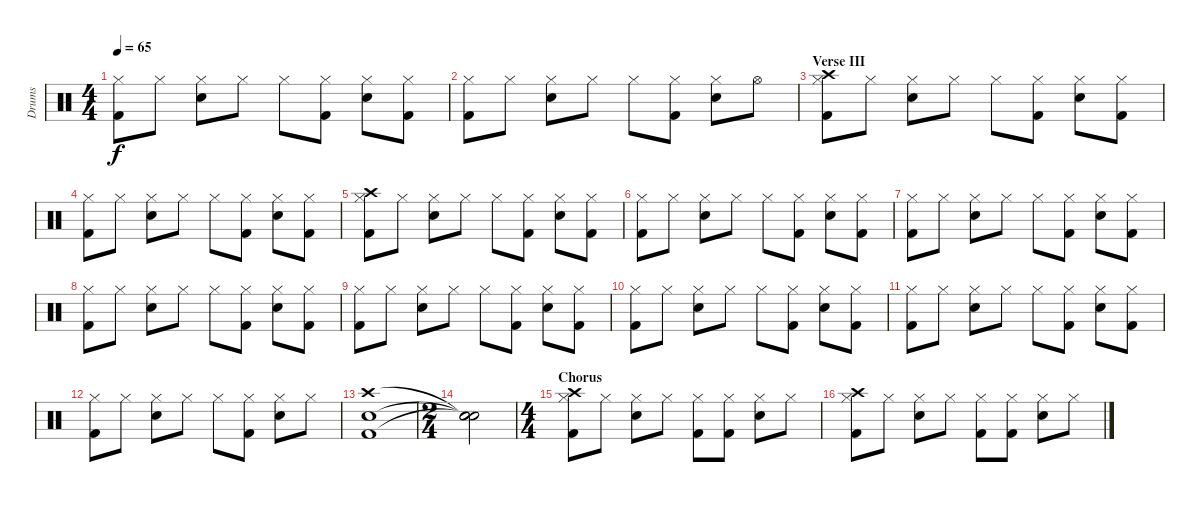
\track ("Drums" "Drums") {instrument percussion}
\staff {score}
\articulation defaults
\ts (4 4)
\tempo 65
\clef neutral
\ks c
("Hi-Hat (closed)" "Kick (hit) 2").8{dy f} "Hi-Hat (closed)".8 ("Hi-Hat (closed)" "Electric Snare (hit)").8 "Hi-Hat (closed)".8 "Hi-Hat (closed)".8 ("Hi-Hat (closed)" "Kick (hit) 2").8 ("Hi-Hat (closed)" "Electric Snare (hit)").8 ("Hi-Hat (closed)" "Kick (hit) 2").8 |
("Hi-Hat (closed)" "Kick (hit) 2").8 "Hi-Hat (closed)".8 ("Hi-Hat (closed)" "Electric Snare (hit)").8 "Hi-Hat (closed)".8 "Hi-Hat (closed)".8 ("Hi-Hat (closed)" "Kick (hit) 2").8 ("Hi-Hat (closed)" "Electric Snare (hit)").8 "Hi-Hat (open)".8 |
\section ("" "Verse III")
("Hi-Hat (closed)" "Kick (hit) 2" "Crash high (hit)").8 "Hi-Hat (closed)".8 ("Hi-Hat (closed)" "Electric Snare (hit)").8 "Hi-Hat (closed)".8 "Hi-Hat (closed)".8 ("Hi-Hat (closed)" "Kick (hit) 2").8 ("Hi-Hat (closed)" "Electric Snare (hit)").8 ("Hi-Hat (closed)" "Kick (hit) 2").8 |
("Hi-Hat (closed)" "Kick (hit) 2").8 "Hi-Hat (closed)".8 ("Hi-Hat (closed)" "Electric Snare (hit)").8 "Hi-Hat (closed)".8 "Hi-Hat (closed)".8 ("Hi-Hat (closed)" "Kick (hit) 2").8 ("Hi-Hat (closed)" "Electric Snare (hit)").8 ("Hi-Hat (closed)" "Kick (hit) 2").8 |
("Hi-Hat (closed)" "Kick (hit) 2" "Crash high (hit)").8 "Hi-Hat (closed)".8 ("Hi-Hat (closed)" "Electric Snare (hit)").8 "Hi-Hat (closed)".8 "Hi-Hat (closed)".8 ("Hi-Hat (closed)" "Kick (hit) 2").8 ("Hi-Hat (closed)" "Electric Snare (hit)").8 ("Hi-Hat (closed)" "Kick (hit) 2").8 |
("Hi-Hat (closed)" "Kick (hit) 2").8 "Hi-Hat (closed)".8 ("Hi-Hat (closed)" "Electric Snare (hit)").8 "Hi-Hat (closed)".8 "Hi-Hat (closed)".8 ("Hi-Hat (closed)" "Kick (hit) 2").8 ("Hi-Hat (closed)" "Electric Snare (hit)").8 ("Hi-Hat (closed)" "Kick (hit) 2").8 |
("Hi-Hat (closed)" "Kick (hit) 2").8 "Hi-Hat (closed)".8 ("Hi-Hat (closed)" "Electric Snare (hit)").8 "Hi-Hat (closed)".8 "Hi-Hat (closed)".8 ("Hi-Hat (closed)" "Kick (hit) 2").8 ("Hi-Hat (closed)" "Electric Snare (hit)").8 ("Hi-Hat (closed)" "Kick (hit) 2").8 |
("Hi-Hat (closed)" "Kick (hit) 2").8 "Hi-Hat (closed)".8 ("Hi-Hat (closed)" "Electric Snare (hit)").8 "Hi-Hat (closed)".8 "Hi-Hat (closed)".8 ("Hi-Hat (closed)" "Kick (hit) 2").8 ("Hi-Hat (closed)" "Electric Snare (hit)").8 ("Hi-Hat (closed)" "Kick (hit) 2").8 |
("Hi-Hat (closed)" "Kick (hit) 2").8 "Hi-Hat (closed)".8 ("Hi-Hat (closed)" "Electric Snare (hit)").8 "Hi-Hat (closed)".8 "Hi-Hat (closed)".8 ("Hi-Hat (closed)" "Kick (hit) 2").8 ("Hi-Hat (closed)" "Electric Snare (hit)").8 ("Hi-Hat (closed)" "Kick (hit) 2").8 |
("Hi-Hat (closed)" "Kick (hit) 2").8 "Hi-Hat (closed)".8 ("Hi-Hat (closed)" "Electric Snare (hit)").8 "Hi-Hat (closed)".8 "Hi-Hat (closed)".8 ("Hi-Hat (closed)" "Kick (hit) 2").8 ("Hi-Hat (closed)" "Electric Snare (hit)").8 ("Hi-Hat (closed)" "Kick (hit) 2").8 |
("Hi-Hat (closed)" "Kick (hit) 2").8 "Hi-Hat (closed)".8 ("Hi-Hat (closed)" "Electric Snare (hit)").8 "Hi-Hat (closed)".8 "Hi-Hat (closed)".8 ("Hi-Hat (closed)" "Kick (hit) 2").8 ("Hi-Hat (closed)" "Electric Snare (hit)").8 ("Hi-Hat (closed)" "Kick (hit) 2").8 |
("Hi-Hat (closed)" "Kick (hit) 2").8 "Hi-Hat (closed)".8 ("Hi-Hat (closed)" "Electric Snare (hit)").8 "Hi-Hat (closed)".8 "Hi-Hat (closed)".8 ("Hi-Hat (closed)" "Kick (hit) 2").8 ("Hi-Hat (closed)" "Electric Snare (hit)").8 "Hi-Hat (closed)".8 |
("Kick (hit) 2" "Electric Snare (hit)" "Crash high (hit)").1 |
\ts (2 4)
("Snare (hit)"{t} "Snare (hit)"{t} "Snare (hit)"{t}).2 |
\ts (4 4)
\section ("" "Chorus")
("Hi-Hat (closed)" "Kick (hit) 2" "Crash high (hit)").8 "Hi-Hat (closed)".8 ("Hi-Hat (closed)" "Electric Snare (hit)").8 "Hi-Hat (closed)".8 ("Hi-Hat (closed)" "Kick (hit) 2").8 ("Hi-Hat (closed)" "Kick (hit) 2").8 ("Hi-Hat (closed)" "Electric Snare (hit)").8 "Hi-Hat (closed)".8 |
("Hi-Hat (closed)" "Kick (hit) 2" "Crash high (hit)").8 "Hi-Hat (closed)".8 ("Hi-Hat (closed)" "Electric Snare (hit)").8 "Hi-Hat (closed)".8 ("Hi-Hat (closed)" "Kick (hit) 2").8 ("Hi-Hat (closed)" "Kick (hit) 2").8 ("Hi-Hat (closed)" "Electric Snare (hit)").8 "Hi-Hat (closed)".8
